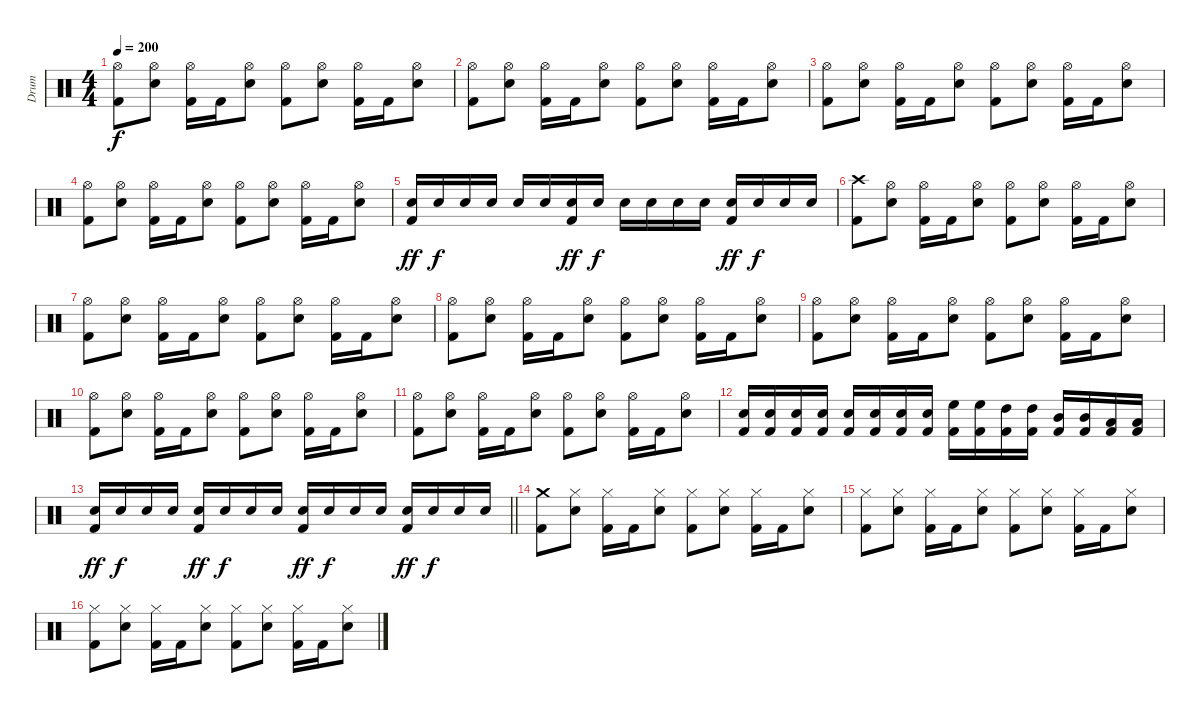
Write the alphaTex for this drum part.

\track ("Drum" "Drum") {instrument percussion}
\staff {score}
\articulation defaults
\ts (4 4)
\tempo 200
\clef neutral
\ks c
("Kick (hit) 2" "Hi-Hat (open)").8{dy f} ("Snare (hit) 2" "Hi-Hat (open)").8 ("Kick (hit) 2" "Hi-Hat (open)").16 "Kick (hit) 2".16 ("Snare (hit) 2" "Hi-Hat (open)").8 ("Kick (hit) 2" "Hi-Hat (open)").8 ("Snare (hit) 2" "Hi-Hat (open)").8 ("Kick (hit) 2" "Hi-Hat (open)").16 "Kick (hit) 2".16 ("Snare (hit) 2" "Hi-Hat (open)").8 |
("Kick (hit) 2" "Hi-Hat (open)").8 ("Snare (hit) 2" "Hi-Hat (open)").8 ("Kick (hit) 2" "Hi-Hat (open)").16 "Kick (hit) 2".16 ("Snare (hit) 2" "Hi-Hat (open)").8 ("Kick (hit) 2" "Hi-Hat (open)").8 ("Snare (hit) 2" "Hi-Hat (open)").8 ("Kick (hit) 2" "Hi-Hat (open)").16 "Kick (hit) 2".16 ("Snare (hit) 2" "Hi-Hat (open)").8 |
("Kick (hit) 2" "Hi-Hat (open)").8 ("Snare (hit) 2" "Hi-Hat (open)").8 ("Kick (hit) 2" "Hi-Hat (open)").16 "Kick (hit) 2".16 ("Snare (hit) 2" "Hi-Hat (open)").8 ("Kick (hit) 2" "Hi-Hat (open)").8 ("Snare (hit) 2" "Hi-Hat (open)").8 ("Kick (hit) 2" "Hi-Hat (open)").16 "Kick (hit) 2".16 ("Snare (hit) 2" "Hi-Hat (open)").8 |
("Kick (hit) 2" "Hi-Hat (open)").8 ("Snare (hit) 2" "Hi-Hat (open)").8 ("Kick (hit) 2" "Hi-Hat (open)").16 "Kick (hit) 2".16 ("Snare (hit) 2" "Hi-Hat (open)").8 ("Kick (hit) 2" "Hi-Hat (open)").8 ("Snare (hit) 2" "Hi-Hat (open)").8 ("Kick (hit) 2" "Hi-Hat (open)").16 "Kick (hit) 2".16 ("Snare (hit) 2" "Hi-Hat (open)").8 |
("Kick (hit) 2" "Snare (hit) 2").16{dy ff} "Snare (hit) 2".16{dy f} "Snare (hit) 2".16 "Snare (hit) 2".16 "Snare (hit) 2".16 "Snare (hit) 2".16 ("Kick (hit) 2" "Snare (hit) 2").16{dy ff} "Snare (hit) 2".16{dy f} "Snare (hit) 2".16 "Snare (hit) 2".16 "Snare (hit) 2".16 "Snare (hit) 2".16 ("Kick (hit) 2" "Snare (hit) 2").16{dy ff} "Snare (hit) 2".16{dy f} "Snare (hit) 2".16 "Snare (hit) 2".16 |
("Kick (hit) 2" "Crash high (hit)").8 ("Snare (hit) 2" "Hi-Hat (open)").8 ("Kick (hit) 2" "Hi-Hat (open)").16 "Kick (hit) 2".16 ("Snare (hit) 2" "Hi-Hat (open)").8 ("Kick (hit) 2" "Hi-Hat (open)").8 ("Snare (hit) 2" "Hi-Hat (open)").8 ("Kick (hit) 2" "Hi-Hat (open)").16 "Kick (hit) 2".16 ("Snare (hit) 2" "Hi-Hat (open)").8 |
("Kick (hit) 2" "Hi-Hat (open)").8 ("Snare (hit) 2" "Hi-Hat (open)").8 ("Kick (hit) 2" "Hi-Hat (open)").16 "Kick (hit) 2".16 ("Snare (hit) 2" "Hi-Hat (open)").8 ("Kick (hit) 2" "Hi-Hat (open)").8 ("Snare (hit) 2" "Hi-Hat (open)").8 ("Kick (hit) 2" "Hi-Hat (open)").16 "Kick (hit) 2".16 ("Snare (hit) 2" "Hi-Hat (open)").8 |
("Kick (hit) 2" "Hi-Hat (open)").8 ("Snare (hit) 2" "Hi-Hat (open)").8 ("Kick (hit) 2" "Hi-Hat (open)").16 "Kick (hit) 2".16 ("Snare (hit) 2" "Hi-Hat (open)").8 ("Kick (hit) 2" "Hi-Hat (open)").8 ("Snare (hit) 2" "Hi-Hat (open)").8 ("Kick (hit) 2" "Hi-Hat (open)").16 "Kick (hit) 2".16 ("Snare (hit) 2" "Hi-Hat (open)").8 |
("Kick (hit) 2" "Hi-Hat (open)").8 ("Snare (hit) 2" "Hi-Hat (open)").8 ("Kick (hit) 2" "Hi-Hat (open)").16 "Kick (hit) 2".16 ("Snare (hit) 2" "Hi-Hat (open)").8 ("Kick (hit) 2" "Hi-Hat (open)").8 ("Snare (hit) 2" "Hi-Hat (open)").8 ("Kick (hit) 2" "Hi-Hat (open)").16 "Kick (hit) 2".16 ("Snare (hit) 2" "Hi-Hat (open)").8 |
("Kick (hit) 2" "Hi-Hat (open)").8 ("Snare (hit) 2" "Hi-Hat (open)").8 ("Kick (hit) 2" "Hi-Hat (open)").16 "Kick (hit) 2".16 ("Snare (hit) 2" "Hi-Hat (open)").8 ("Kick (hit) 2" "Hi-Hat (open)").8 ("Snare (hit) 2" "Hi-Hat (open)").8 ("Kick (hit) 2" "Hi-Hat (open)").16 "Kick (hit) 2".16 ("Snare (hit) 2" "Hi-Hat (open)").8 |
("Kick (hit) 2" "Hi-Hat (open)").8 ("Snare (hit) 2" "Hi-Hat (open)").8 ("Kick (hit) 2" "Hi-Hat (open)").16 "Kick (hit) 2".16 ("Snare (hit) 2" "Hi-Hat (open)").8 ("Kick (hit) 2" "Hi-Hat (open)").8 ("Snare (hit) 2" "Hi-Hat (open)").8 ("Kick (hit) 2" "Hi-Hat (open)").16 "Kick (hit) 2".16 ("Snare (hit) 2" "Hi-Hat (open)").8 |
("Kick (hit) 2" "Snare (hit) 2").16 ("Kick (hit) 2" "Snare (hit) 2").16 ("Kick (hit) 2" "Snare (hit) 2").16 ("Kick (hit) 2" "Snare (hit) 2").16 ("Kick (hit) 2" "Snare (hit) 2").16 ("Kick (hit) 2" "Snare (hit) 2").16 ("Kick (hit) 2" "Snare (hit) 2").16 ("Kick (hit) 2" "Snare (hit) 2").16 ("Kick (hit) 2" "High Floor Tom (hit)").16 ("Kick (hit) 2" "High Floor Tom (hit)").16 ("Kick (hit) 2" "High Tom (hit)").16 ("Kick (hit) 2" "High Tom (hit)").16 ("Kick (hit) 2" "Mid Tom (hit)").16 ("Kick (hit) 2" "Mid Tom (hit)").16 ("Kick (hit) 2" "Low Tom (hit)").16 ("Kick (hit) 2" "Low Tom (hit)").16 |
\barLineRight lightlight
("Kick (hit) 2" "Snare (hit) 2").16{dy ff} "Snare (hit) 2".16{dy f} "Snare (hit) 2".16 "Snare (hit) 2".16 ("Kick (hit) 2" "Snare (hit) 2").16{dy ff} "Snare (hit) 2".16{dy f} "Snare (hit) 2".16 "Snare (hit) 2".16 ("Kick (hit) 2" "Snare (hit) 2").16{dy ff} "Snare (hit) 2".16{dy f} "Snare (hit) 2".16 "Snare (hit) 2".16 ("Kick (hit) 2" "Snare (hit) 2").16{dy ff} "Snare (hit) 2".16{dy f} "Snare (hit) 2".16 "Snare (hit) 2".16 |
\section ("" "")
("Kick (hit) 2" "Crash medium (hit)").8 ("Snare (hit) 2" "Hi-Hat (closed)").8 ("Kick (hit) 2" "Hi-Hat (closed)").16 "Kick (hit) 2".16 ("Snare (hit) 2" "Hi-Hat (closed)").8 ("Kick (hit) 2" "Hi-Hat (closed)").8 ("Snare (hit) 2" "Hi-Hat (closed)").8 ("Kick (hit) 2" "Hi-Hat (closed)").16 "Kick (hit) 2".16 ("Snare (hit) 2" "Hi-Hat (closed)").8 |
("Kick (hit) 2" "Hi-Hat (closed)").8 ("Snare (hit) 2" "Hi-Hat (closed)").8 ("Kick (hit) 2" "Hi-Hat (closed)").16 "Kick (hit) 2".16 ("Snare (hit) 2" "Hi-Hat (closed)").8 ("Kick (hit) 2" "Hi-Hat (closed)").8 ("Snare (hit) 2" "Hi-Hat (closed)").8 ("Kick (hit) 2" "Hi-Hat (closed)").16 "Kick (hit) 2".16 ("Snare (hit) 2" "Hi-Hat (closed)").8 |
("Kick (hit) 2" "Hi-Hat (closed)").8 ("Snare (hit) 2" "Hi-Hat (closed)").8 ("Kick (hit) 2" "Hi-Hat (closed)").16 "Kick (hit) 2".16 ("Snare (hit) 2" "Hi-Hat (closed)").8 ("Kick (hit) 2" "Hi-Hat (closed)").8 ("Snare (hit) 2" "Hi-Hat (closed)").8 ("Kick (hit) 2" "Hi-Hat (closed)").16 "Kick (hit) 2".16 ("Snare (hit) 2" "Hi-Hat (closed)").8
